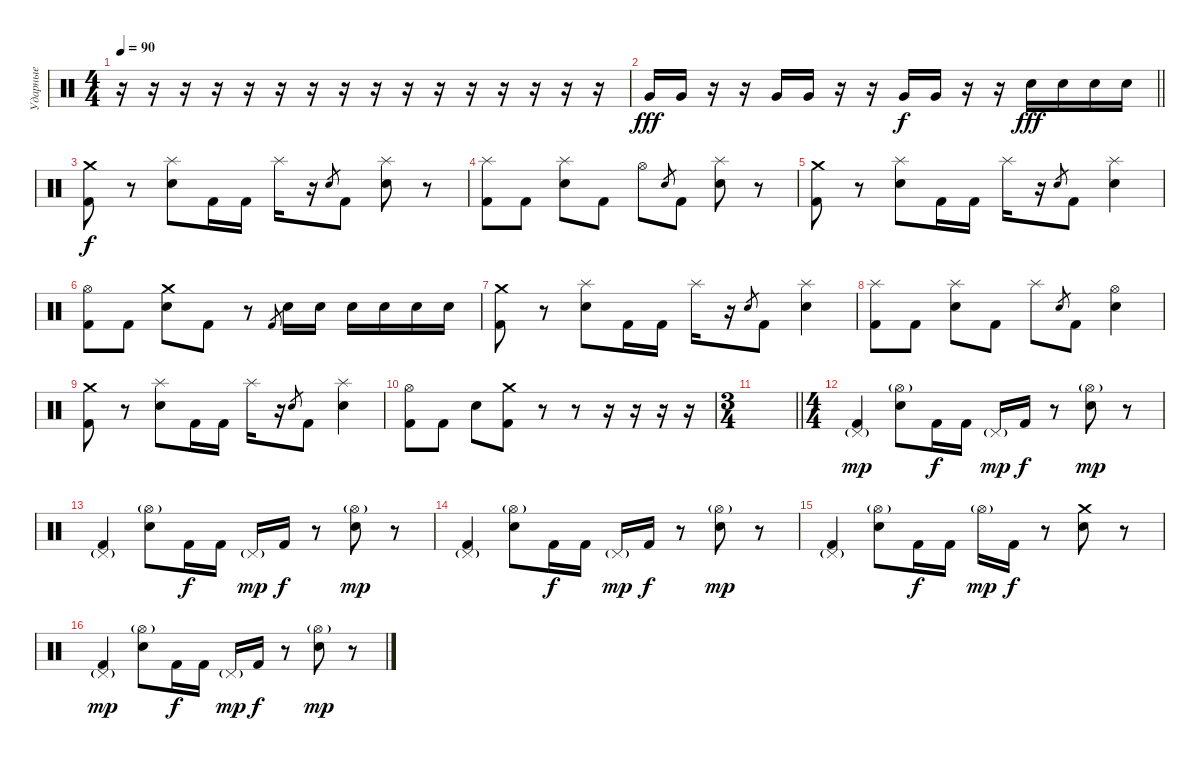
\track ("Ударные" "Ударные") {instrument percussion}
\staff {score}
\articulation defaults
\ts (4 4)
\tempo 90
\clef neutral
\ks c
r.16{dy f} r.16 r.16 r.16 r.16 r.16 r.16 r.16 r.16 r.16 r.16 r.16 r.16 r.16 r.16 r.16 |
\barLineRight lightlight "Very Low Tom (hit)".16{dy fff} "Very Low Tom (hit)".16
r.16 r.16 "Very Low Tom (hit)".16 "Very Low Tom (hit)".16 r.16 r.16 "Very Low Tom (hit)".16{dy f} "Very Low Tom (hit)".16 r.16 r.16 "Electric Snare (hit)".16{dy fff} "Electric Snare (hit)".16 "Electric Snare (hit)".16 "Electric Snare (hit)".16 |
("Crash medium (hit)" "Kick (hit) 2").8{dy f} r.8 ("Splash (hit)" "Electric Snare (hit)").8 "Kick (hit) 2".16 "Kick (hit) 2".16 "Splash (hit)".16 r.16 "Electric Snare (hit)".8{gr} "Kick (hit) 2".8 ("Splash (hit)" "Electric Snare (hit)").8 r.8 |
("Splash (hit)" "Kick (hit) 2").8 "Kick (hit) 2".8 ("Splash (hit)" "Electric Snare (hit)").8 "Kick (hit) 2".8 "Hi-Hat (open)".8 "Electric Snare (hit)".8{gr} "Kick (hit) 2".8 ("Splash (hit)" "Electric Snare (hit)").8 r.8 |
("Crash medium (hit)" "Kick (hit) 2").8 r.8 ("Splash (hit)" "Electric Snare (hit)").8 "Kick (hit) 2".16 "Kick (hit) 2".16 "Splash (hit)".16 r.16 "Electric Snare (hit)".8{gr} "Kick (hit) 2".8 ("Splash (hit)" "Electric Snare (hit)").4 |
("Hi-Hat (open)" "Kick (hit) 2").8 "Kick (hit) 2".8 ("Crash medium (hit)" "Electric Snare (hit)").8 "Kick (hit) 2".8 r.8 "Kick (hit) 2".8{gr} "Electric Snare (hit)".16 "Electric Snare (hit)".16 "Electric Snare (hit)".16 "Electric Snare (hit)".16 "Electric Snare (hit)".16 "Electric Snare (hit)".16 |
("Crash medium (hit)" "Kick (hit) 2").8 r.8 ("Splash (hit)" "Electric Snare (hit)").8 "Kick (hit) 2".16 "Kick (hit) 2".16 "Splash (hit)".16 r.16 "Electric Snare (hit)".8{gr} "Kick (hit) 2".8 ("Splash (hit)" "Electric Snare (hit)").4 |
("Splash (hit)" "Kick (hit) 2").8 "Kick (hit) 2".8 ("Splash (hit)" "Electric Snare (hit)").8 "Kick (hit) 2".8 "Splash (hit)".8 "Electric Snare (hit)".8{gr} "Kick (hit) 2".8 ("Hi-Hat (open)" "Electric Snare (hit)").4 |
("Crash medium (hit)" "Kick (hit) 2").8 r.8 ("Splash (hit)" "Electric Snare (hit)").8 "Kick (hit) 2".16 "Kick (hit) 2".16 "Splash (hit)".16 r.16 "Electric Snare (hit)".8{gr} "Kick (hit) 2".8 ("Splash (hit)" "Electric Snare (hit)").4 |
("Hi-Hat (open)" "Kick (hit) 2").8 "Kick (hit) 2".8 "Electric Snare (hit)".8 ("Crash medium (hit)" "Kick (hit) 2").8 r.8 r.8 r.16 r.16 r.16 r.16 |
\ts (3 4)
\barLineRight lightlight
|
\ts (4 4)
("Pedal Hi-Hat (hit)"{g} "Kick (hit) 2").4{dy mp} ("Hi-Hat (open)"{g} "Electric Snare (hit)").8 "Kick (hit) 2".16{dy f} "Kick (hit) 2".16 "Pedal Hi-Hat (hit)"{g}.16{dy mp} "Kick (hit) 2".16{dy f} r.8 ("Hi-Hat (open)"{g} "Electric Snare (hit)").8{dy mp} r.8 |
("Pedal Hi-Hat (hit)"{g} "Kick (hit) 2").4 ("Hi-Hat (open)"{g} "Electric Snare (hit)").8 "Kick (hit) 2".16{dy f} "Kick (hit) 2".16 "Pedal Hi-Hat (hit)"{g}.16{dy mp} "Kick (hit) 2".16{dy f} r.8 ("Hi-Hat (open)"{g} "Electric Snare (hit)").8{dy mp} r.8 |
("Pedal Hi-Hat (hit)"{g} "Kick (hit) 2").4 ("Hi-Hat (open)"{g} "Electric Snare (hit)").8 "Kick (hit) 2".16{dy f} "Kick (hit) 2".16 "Pedal Hi-Hat (hit)"{g}.16{dy mp} "Kick (hit) 2".16{dy f} r.8 ("Hi-Hat (open)"{g} "Electric Snare (hit)").8{dy mp} r.8 |
("Pedal Hi-Hat (hit)"{g} "Kick (hit) 2").4 ("Hi-Hat (open)"{g} "Electric Snare (hit)").8 "Kick (hit) 2".16{dy f} "Kick (hit) 2".16 "Hi-Hat (open)"{g}.16{dy mp} "Kick (hit) 2".16{dy f} r.8 ("Crash medium (hit)" "Electric Snare (hit)").8 r.8 |
("Pedal Hi-Hat (hit)"{g} "Kick (hit) 2").4{dy mp} ("Hi-Hat (open)"{g} "Electric Snare (hit)").8 "Kick (hit) 2".16{dy f} "Kick (hit) 2".16 "Pedal Hi-Hat (hit)"{g}.16{dy mp} "Kick (hit) 2".16{dy f} r.8 ("Hi-Hat (open)"{g} "Electric Snare (hit)").8{dy mp} r.8
